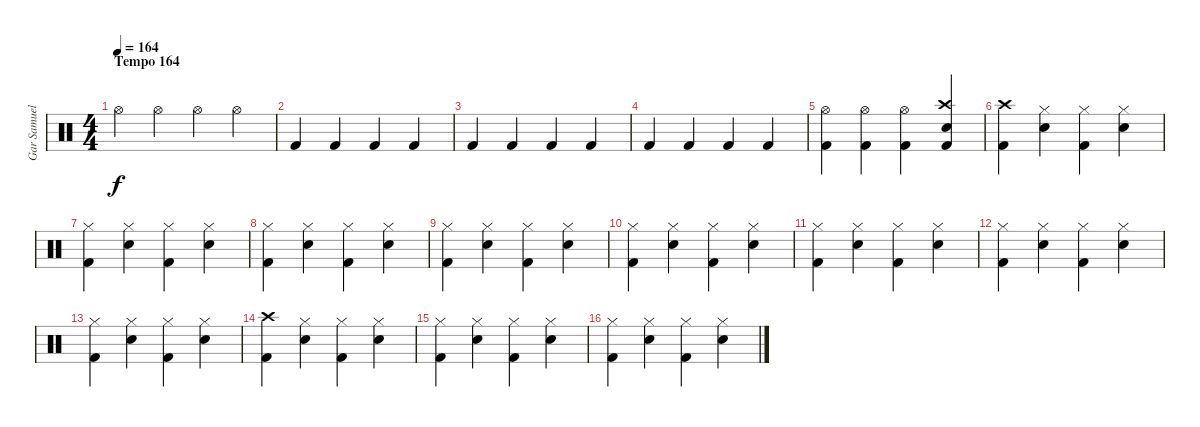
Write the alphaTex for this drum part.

\track ("Gar Samuelson (Drums)" "Gar Samuel") {instrument percussion}
\staff {score}
\articulation defaults
\ts (4 4)
\section ("" "Tempo 164")
\tempo 164
\clef neutral
\ks c "Hi-Hat (open)".4{dy f} "Hi-Hat (open)".4 "Hi-Hat (open)".4 "Hi-Hat (open)".4
|
"Kick (hit) 2".4 "Kick (hit) 2".4 "Kick (hit) 2".4 "Kick (hit) 2".4 |
"Kick (hit) 2".4 "Kick (hit) 2".4 "Kick (hit) 2".4 "Kick (hit) 2".4 |
"Kick (hit) 2".4 "Kick (hit) 2".4 "Kick (hit) 2".4 "Kick (hit) 2".4 |
("Hi-Hat (open)" "Kick (hit) 2").4 ("Hi-Hat (open)" "Kick (hit) 2").4 ("Hi-Hat (open)" "Kick (hit) 2").4 ("Crash high (hit)" "Kick (hit) 2" "Electric Snare (hit)").4 |
("Crash high (hit)" "Kick (hit) 2").4 ("Hi-Hat (closed)" "Electric Snare (hit)").4 ("Hi-Hat (closed)" "Kick (hit) 2").4 ("Hi-Hat (closed)" "Electric Snare (hit)").4 |
("Hi-Hat (closed)" "Kick (hit) 2").4 ("Hi-Hat (closed)" "Electric Snare (hit)").4 ("Hi-Hat (closed)" "Kick (hit) 2").4 ("Hi-Hat (closed)" "Electric Snare (hit)").4 |
("Hi-Hat (closed)" "Kick (hit) 2").4 ("Hi-Hat (closed)" "Electric Snare (hit)").4 ("Hi-Hat (closed)" "Kick (hit) 2").4 ("Hi-Hat (closed)" "Electric Snare (hit)").4 |
("Hi-Hat (closed)" "Kick (hit) 2").4 ("Hi-Hat (closed)" "Electric Snare (hit)").4 ("Hi-Hat (closed)" "Kick (hit) 2").4 ("Hi-Hat (closed)" "Electric Snare (hit)").4 |
("Hi-Hat (closed)" "Kick (hit) 2").4 ("Hi-Hat (closed)" "Electric Snare (hit)").4 ("Hi-Hat (closed)" "Kick (hit) 2").4 ("Hi-Hat (closed)" "Electric Snare (hit)").4 |
("Hi-Hat (closed)" "Kick (hit) 2").4 ("Hi-Hat (closed)" "Electric Snare (hit)").4 ("Hi-Hat (closed)" "Kick (hit) 2").4 ("Hi-Hat (closed)" "Electric Snare (hit)").4 |
("Hi-Hat (closed)" "Kick (hit) 2").4 ("Hi-Hat (closed)" "Electric Snare (hit)").4 ("Hi-Hat (closed)" "Kick (hit) 2").4 ("Hi-Hat (closed)" "Electric Snare (hit)").4 |
("Hi-Hat (closed)" "Kick (hit) 2").4 ("Hi-Hat (closed)" "Electric Snare (hit)").4 ("Hi-Hat (closed)" "Kick (hit) 2").4 ("Hi-Hat (closed)" "Electric Snare (hit)").4 |
("Crash high (hit)" "Kick (hit) 2").4 ("Hi-Hat (closed)" "Electric Snare (hit)").4 ("Hi-Hat (closed)" "Kick (hit) 2").4 ("Hi-Hat (closed)" "Electric Snare (hit)").4 |
("Hi-Hat (closed)" "Kick (hit) 2").4 ("Hi-Hat (closed)" "Electric Snare (hit)").4 ("Hi-Hat (closed)" "Kick (hit) 2").4 ("Hi-Hat (closed)" "Electric Snare (hit)").4 |
("Hi-Hat (closed)" "Kick (hit) 2").4 ("Hi-Hat (closed)" "Electric Snare (hit)").4 ("Hi-Hat (closed)" "Kick (hit) 2").4 ("Hi-Hat (closed)" "Electric Snare (hit)").4
